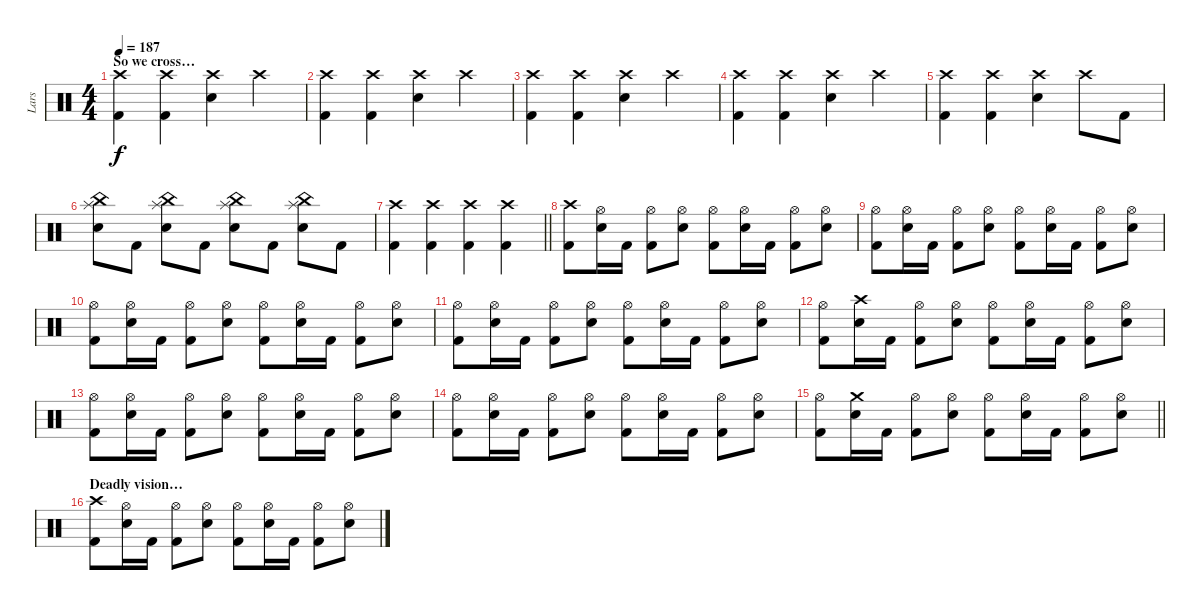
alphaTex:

\track ("Lars" "Lars") {instrument percussion}
\staff {score}
\articulation defaults
\ts (4 4)
\section ("" "So we cross…")
\tempo 187
\clef neutral
\ks c
("Crash high (hit)" "Kick (hit) 2").4{dy f} ("Crash high (hit)" "Kick (hit) 2").4 ("Crash high (hit)" "Snare (hit) 2").4 "Crash high (hit)".4 |
("Crash high (hit)" "Kick (hit) 2").4 ("Crash high (hit)" "Kick (hit) 2").4 ("Crash high (hit)" "Snare (hit) 2").4 "Crash high (hit)".4 |
("Crash high (hit)" "Kick (hit) 2").4 ("Crash high (hit)" "Kick (hit) 2").4 ("Crash high (hit)" "Snare (hit) 2").4 "Crash high (hit)".4 |
("Crash high (hit)" "Kick (hit) 2").4 ("Crash high (hit)" "Kick (hit) 2").4 ("Crash high (hit)" "Snare (hit) 2").4 "Crash high (hit)".4 |
("Crash high (hit)" "Kick (hit) 2").4 ("Crash high (hit)" "Kick (hit) 2").4 ("Crash high (hit)" "Snare (hit) 2").4 "Crash high (hit)".8 "Kick (hit) 2".8 |
("Splash (hit)" "China (hit)" "Snare (hit) 2").8 "Kick (hit) 2".8 ("Splash (hit)" "China (hit)" "Snare (hit) 2").8 "Kick (hit) 2".8 ("Splash (hit)" "China (hit)" "Snare (hit) 2").8 "Kick (hit) 2".8 ("Splash (hit)" "China (hit)" "Snare (hit) 2").8 "Kick (hit) 2".8 |
\barLineRight lightlight
("Crash high (hit)" "Kick (hit) 2").4 ("Crash high (hit)" "Kick (hit) 2").4 ("Crash high (hit)" "Kick (hit) 2").4 ("Crash high (hit)" "Kick (hit) 2").4 |
\section ("" "")
("Crash high (hit)" "Kick (hit) 2").8 ("Hi-Hat (open)" "Snare (hit) 2").16 "Kick (hit) 2".16 ("Hi-Hat (open)" "Kick (hit) 2").8 ("Hi-Hat (open)" "Snare (hit) 2").8 ("Hi-Hat (open)" "Kick (hit) 2").8 ("Hi-Hat (open)" "Snare (hit) 2").16 "Kick (hit) 2".16 ("Hi-Hat (open)" "Kick (hit) 2").8 ("Hi-Hat (open)" "Snare (hit) 2").8 |
("Hi-Hat (open)" "Kick (hit) 2").8 ("Hi-Hat (open)" "Snare (hit) 2").16 "Kick (hit) 2".16 ("Hi-Hat (open)" "Kick (hit) 2").8 ("Hi-Hat (open)" "Snare (hit) 2").8 ("Hi-Hat (open)" "Kick (hit) 2").8 ("Hi-Hat (open)" "Snare (hit) 2").16 "Kick (hit) 2".16 ("Hi-Hat (open)" "Kick (hit) 2").8 ("Hi-Hat (open)" "Snare (hit) 2").8 |
("Hi-Hat (open)" "Kick (hit) 2").8 ("Hi-Hat (open)" "Snare (hit) 2").16 "Kick (hit) 2".16 ("Hi-Hat (open)" "Kick (hit) 2").8 ("Hi-Hat (open)" "Snare (hit) 2").8 ("Hi-Hat (open)" "Kick (hit) 2").8 ("Hi-Hat (open)" "Snare (hit) 2").16 "Kick (hit) 2".16 ("Hi-Hat (open)" "Kick (hit) 2").8 ("Hi-Hat (open)" "Snare (hit) 2").8 |
("Hi-Hat (open)" "Kick (hit) 2").8 ("Hi-Hat (open)" "Snare (hit) 2").16 "Kick (hit) 2".16 ("Hi-Hat (open)" "Kick (hit) 2").8 ("Hi-Hat (open)" "Snare (hit) 2").8 ("Hi-Hat (open)" "Kick (hit) 2").8 ("Hi-Hat (open)" "Snare (hit) 2").16 "Kick (hit) 2".16 ("Hi-Hat (open)" "Kick (hit) 2").8 ("Hi-Hat (open)" "Snare (hit) 2").8 |
("Hi-Hat (open)" "Kick (hit) 2").8 ("Crash high (hit)" "Snare (hit) 2").16 "Kick (hit) 2".16 ("Hi-Hat (open)" "Kick (hit) 2").8 ("Hi-Hat (open)" "Snare (hit) 2").8 ("Hi-Hat (open)" "Kick (hit) 2").8 ("Hi-Hat (open)" "Snare (hit) 2").16 "Kick (hit) 2".16 ("Hi-Hat (open)" "Kick (hit) 2").8 ("Hi-Hat (open)" "Snare (hit) 2").8 |
("Hi-Hat (open)" "Kick (hit) 2").8 ("Hi-Hat (open)" "Snare (hit) 2").16 "Kick (hit) 2".16 ("Hi-Hat (open)" "Kick (hit) 2").8 ("Hi-Hat (open)" "Snare (hit) 2").8 ("Hi-Hat (open)" "Kick (hit) 2").8 ("Hi-Hat (open)" "Snare (hit) 2").16 "Kick (hit) 2".16 ("Hi-Hat (open)" "Kick (hit) 2").8 ("Hi-Hat (open)" "Snare (hit) 2").8 |
("Hi-Hat (open)" "Kick (hit) 2").8 ("Hi-Hat (open)" "Snare (hit) 2").16 "Kick (hit) 2".16 ("Hi-Hat (open)" "Kick (hit) 2").8 ("Hi-Hat (open)" "Snare (hit) 2").8 ("Hi-Hat (open)" "Kick (hit) 2").8 ("Hi-Hat (open)" "Snare (hit) 2").16 "Kick (hit) 2".16 ("Hi-Hat (open)" "Kick (hit) 2").8 ("Hi-Hat (open)" "Snare (hit) 2").8 |
\barLineRight lightlight
("Hi-Hat (open)" "Kick (hit) 2").8 ("Crash medium (hit)" "Snare (hit) 2").16 "Kick (hit) 2".16 ("Hi-Hat (open)" "Kick (hit) 2").8 ("Hi-Hat (open)" "Snare (hit) 2").8 ("Hi-Hat (open)" "Kick (hit) 2").8 ("Hi-Hat (open)" "Snare (hit) 2").16 "Kick (hit) 2".16 ("Hi-Hat (open)" "Kick (hit) 2").8 ("Hi-Hat (open)" "Snare (hit) 2").8 |
\section ("" "Deadly vision…")
("Crash high (hit)" "Kick (hit) 2").8 ("Hi-Hat (open)" "Snare (hit) 2").16 "Kick (hit) 2".16 ("Hi-Hat (open)" "Kick (hit) 2").8 ("Hi-Hat (open)" "Snare (hit) 2").8 ("Hi-Hat (open)" "Kick (hit) 2").8 ("Hi-Hat (open)" "Snare (hit) 2").16 "Kick (hit) 2".16 ("Hi-Hat (open)" "Kick (hit) 2").8 ("Hi-Hat (open)" "Snare (hit) 2").8
